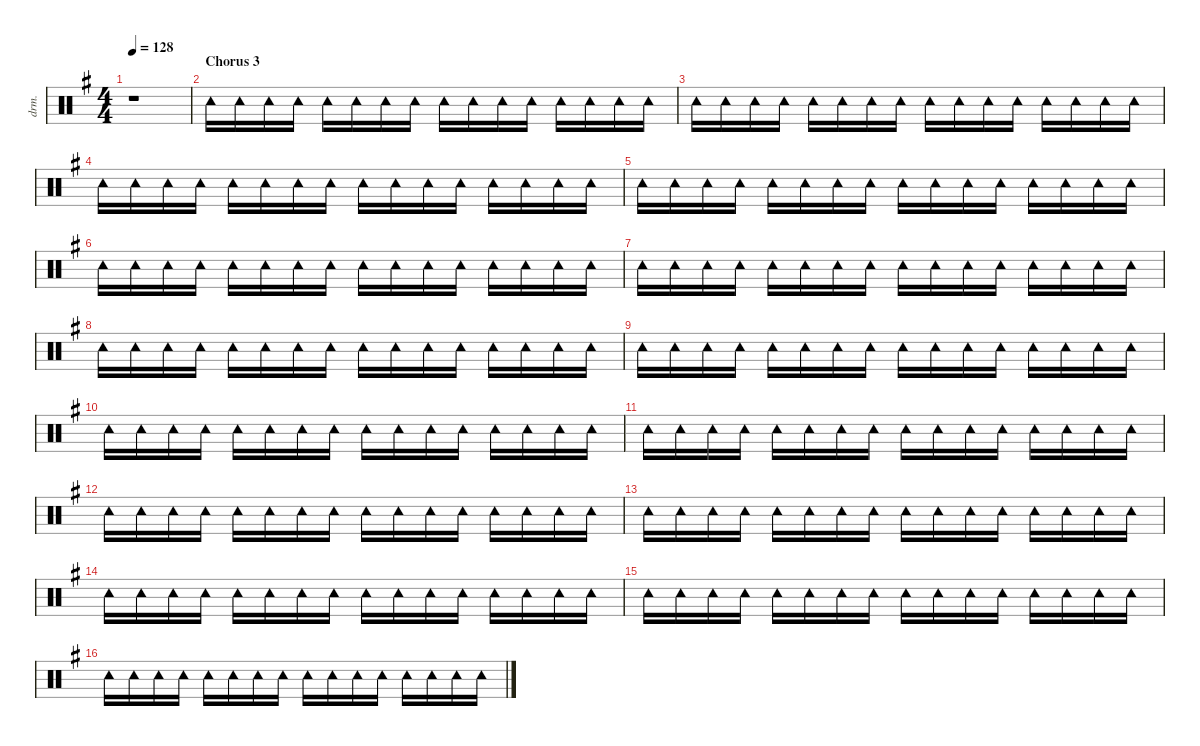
\defaultSystemsLayout 4
\hideDynamics
\bracketExtendMode nobrackets
\otherSystemsTrackNameOrientation horizontal
\track ("Percussion" "drm.") {defaultSystemsLayout 8 instrument percussion}
\staff {score}
\articulation defaults
\ts (4 4)
\tempo 128
\clef neutral
\ks eminor
r.1{dy fff beam Down} |
\section ("" "Chorus 3")
"Tambourine (hit)"{acc forcenatural}.16{dy f beam Down} "Tambourine (hit)"{acc forcenatural}.16{beam Down} "Tambourine (hit)"{acc forcenatural}.16{beam Down} "Tambourine (hit)"{acc forcenatural}.16{beam Down} "Tambourine (hit)"{acc forcenatural}.16{dy fff beam Down} "Tambourine (hit)"{acc forcenatural}.16{dy f beam Down} "Tambourine (hit)"{acc forcenatural}.16{beam Down} "Tambourine (hit)"{acc forcenatural}.16{beam Down} "Tambourine (hit)"{acc forcenatural}.16{beam Down} "Tambourine (hit)"{acc forcenatural}.16{beam Down} "Tambourine (hit)"{acc forcenatural}.16{beam Down} "Tambourine (hit)"{acc forcenatural}.16{beam Down} "Tambourine (hit)"{acc forcenatural}.16{dy fff beam Down} "Tambourine (hit)"{acc forcenatural}.16{dy f beam Down} "Tambourine (hit)"{acc forcenatural}.16{beam Down} "Tambourine (hit)"{acc forcenatural}.16{beam Down} |
"Tambourine (hit)"{acc forcenatural}.16{beam Down} "Tambourine (hit)"{acc forcenatural}.16{beam Down} "Tambourine (hit)"{acc forcenatural}.16{beam Down} "Tambourine (hit)"{acc forcenatural}.16{beam Down} "Tambourine (hit)"{acc forcenatural}.16{dy fff beam Down} "Tambourine (hit)"{acc forcenatural}.16{dy f beam Down} "Tambourine (hit)"{acc forcenatural}.16{beam Down} "Tambourine (hit)"{acc forcenatural}.16{beam Down} "Tambourine (hit)"{acc forcenatural}.16{beam Down} "Tambourine (hit)"{acc forcenatural}.16{beam Down} "Tambourine (hit)"{acc forcenatural}.16{beam Down} "Tambourine (hit)"{acc forcenatural}.16{beam Down} "Tambourine (hit)"{acc forcenatural}.16{dy fff beam Down} "Tambourine (hit)"{acc forcenatural}.16{dy f beam Down} "Tambourine (hit)"{acc forcenatural}.16{beam Down} "Tambourine (hit)"{acc forcenatural}.16{beam Down} |
"Tambourine (hit)"{acc forcenatural}.16{beam Down} "Tambourine (hit)"{acc forcenatural}.16{beam Down} "Tambourine (hit)"{acc forcenatural}.16{beam Down} "Tambourine (hit)"{acc forcenatural}.16{beam Down} "Tambourine (hit)"{acc forcenatural}.16{dy fff beam Down} "Tambourine (hit)"{acc forcenatural}.16{dy f beam Down} "Tambourine (hit)"{acc forcenatural}.16{beam Down} "Tambourine (hit)"{acc forcenatural}.16{beam Down} "Tambourine (hit)"{acc forcenatural}.16{beam Down} "Tambourine (hit)"{acc forcenatural}.16{beam Down} "Tambourine (hit)"{acc forcenatural}.16{beam Down} "Tambourine (hit)"{acc forcenatural}.16{beam Down} "Tambourine (hit)"{acc forcenatural}.16{dy fff beam Down} "Tambourine (hit)"{acc forcenatural}.16{dy f beam Down} "Tambourine (hit)"{acc forcenatural}.16{beam Down} "Tambourine (hit)"{acc forcenatural}.16{beam Down} |
"Tambourine (hit)"{acc forcenatural}.16{beam Down} "Tambourine (hit)"{acc forcenatural}.16{beam Down} "Tambourine (hit)"{acc forcenatural}.16{beam Down} "Tambourine (hit)"{acc forcenatural}.16{beam Down} "Tambourine (hit)"{acc forcenatural}.16{dy fff beam Down} "Tambourine (hit)"{acc forcenatural}.16{dy f beam Down} "Tambourine (hit)"{acc forcenatural}.16{beam Down} "Tambourine (hit)"{acc forcenatural}.16{beam Down} "Tambourine (hit)"{acc forcenatural}.16{beam Down} "Tambourine (hit)"{acc forcenatural}.16{beam Down} "Tambourine (hit)"{acc forcenatural}.16{beam Down} "Tambourine (hit)"{acc forcenatural}.16{beam Down} "Tambourine (hit)"{acc forcenatural}.16{dy fff beam Down} "Tambourine (hit)"{acc forcenatural}.16{dy f beam Down} "Tambourine (hit)"{acc forcenatural}.16{beam Down} "Tambourine (hit)"{acc forcenatural}.16{beam Down} |
"Tambourine (hit)"{acc forcenatural}.16{beam Down} "Tambourine (hit)"{acc forcenatural}.16{beam Down} "Tambourine (hit)"{acc forcenatural}.16{beam Down} "Tambourine (hit)"{acc forcenatural}.16{beam Down} "Tambourine (hit)"{acc forcenatural}.16{dy fff beam Down} "Tambourine (hit)"{acc forcenatural}.16{dy f beam Down} "Tambourine (hit)"{acc forcenatural}.16{beam Down} "Tambourine (hit)"{acc forcenatural}.16{beam Down} "Tambourine (hit)"{acc forcenatural}.16{beam Down} "Tambourine (hit)"{acc forcenatural}.16{beam Down} "Tambourine (hit)"{acc forcenatural}.16{beam Down} "Tambourine (hit)"{acc forcenatural}.16{beam Down} "Tambourine (hit)"{acc forcenatural}.16{dy fff beam Down} "Tambourine (hit)"{acc forcenatural}.16{dy f beam Down} "Tambourine (hit)"{acc forcenatural}.16{beam Down} "Tambourine (hit)"{acc forcenatural}.16{beam Down} |
"Tambourine (hit)"{acc forcenatural}.16{beam Down} "Tambourine (hit)"{acc forcenatural}.16{beam Down} "Tambourine (hit)"{acc forcenatural}.16{beam Down} "Tambourine (hit)"{acc forcenatural}.16{beam Down} "Tambourine (hit)"{acc forcenatural}.16{dy fff beam Down} "Tambourine (hit)"{acc forcenatural}.16{dy f beam Down} "Tambourine (hit)"{acc forcenatural}.16{beam Down} "Tambourine (hit)"{acc forcenatural}.16{beam Down} "Tambourine (hit)"{acc forcenatural}.16{beam Down} "Tambourine (hit)"{acc forcenatural}.16{beam Down} "Tambourine (hit)"{acc forcenatural}.16{beam Down} "Tambourine (hit)"{acc forcenatural}.16{beam Down} "Tambourine (hit)"{acc forcenatural}.16{dy fff beam Down} "Tambourine (hit)"{acc forcenatural}.16{dy f beam Down} "Tambourine (hit)"{acc forcenatural}.16{beam Down} "Tambourine (hit)"{acc forcenatural}.16{beam Down} |
"Tambourine (hit)"{acc forcenatural}.16{beam Down} "Tambourine (hit)"{acc forcenatural}.16{beam Down} "Tambourine (hit)"{acc forcenatural}.16{beam Down} "Tambourine (hit)"{acc forcenatural}.16{beam Down} "Tambourine (hit)"{acc forcenatural}.16{dy fff beam Down} "Tambourine (hit)"{acc forcenatural}.16{dy f beam Down} "Tambourine (hit)"{acc forcenatural}.16{beam Down} "Tambourine (hit)"{acc forcenatural}.16{beam Down} "Tambourine (hit)"{acc forcenatural}.16{beam Down} "Tambourine (hit)"{acc forcenatural}.16{beam Down} "Tambourine (hit)"{acc forcenatural}.16{beam Down} "Tambourine (hit)"{acc forcenatural}.16{beam Down} "Tambourine (hit)"{acc forcenatural}.16{dy fff beam Down} "Tambourine (hit)"{acc forcenatural}.16{dy f beam Down} "Tambourine (hit)"{acc forcenatural}.16{beam Down} "Tambourine (hit)"{acc forcenatural}.16{beam Down} |
"Tambourine (hit)"{acc forcenatural}.16{beam Down} "Tambourine (hit)"{acc forcenatural}.16{beam Down} "Tambourine (hit)"{acc forcenatural}.16{beam Down} "Tambourine (hit)"{acc forcenatural}.16{beam Down} "Tambourine (hit)"{acc forcenatural}.16{dy fff beam Down} "Tambourine (hit)"{acc forcenatural}.16{dy f beam Down} "Tambourine (hit)"{acc forcenatural}.16{beam Down} "Tambourine (hit)"{acc forcenatural}.16{beam Down} "Tambourine (hit)"{acc forcenatural}.16{beam Down} "Tambourine (hit)"{acc forcenatural}.16{beam Down} "Tambourine (hit)"{acc forcenatural}.16{beam Down} "Tambourine (hit)"{acc forcenatural}.16{beam Down} "Tambourine (hit)"{acc forcenatural}.16{dy fff beam Down} "Tambourine (hit)"{acc forcenatural}.16{dy f beam Down} "Tambourine (hit)"{acc forcenatural}.16{beam Down} "Tambourine (hit)"{acc forcenatural}.16{beam Down} |
"Tambourine (hit)"{acc forcenatural}.16{beam Down} "Tambourine (hit)"{acc forcenatural}.16{beam Down} "Tambourine (hit)"{acc forcenatural}.16{beam Down} "Tambourine (hit)"{acc forcenatural}.16{beam Down} "Tambourine (hit)"{acc forcenatural}.16{dy fff beam Down} "Tambourine (hit)"{acc forcenatural}.16{dy f beam Down} "Tambourine (hit)"{acc forcenatural}.16{beam Down} "Tambourine (hit)"{acc forcenatural}.16{beam Down} "Tambourine (hit)"{acc forcenatural}.16{beam Down} "Tambourine (hit)"{acc forcenatural}.16{beam Down} "Tambourine (hit)"{acc forcenatural}.16{beam Down} "Tambourine (hit)"{acc forcenatural}.16{beam Down} "Tambourine (hit)"{acc forcenatural}.16{dy fff beam Down} "Tambourine (hit)"{acc forcenatural}.16{dy f beam Down} "Tambourine (hit)"{acc forcenatural}.16{beam Down} "Tambourine (hit)"{acc forcenatural}.16{beam Down} |
"Tambourine (hit)"{acc forcenatural}.16{beam Down} "Tambourine (hit)"{acc forcenatural}.16{beam Down} "Tambourine (hit)"{acc forcenatural}.16{beam Down} "Tambourine (hit)"{acc forcenatural}.16{beam Down} "Tambourine (hit)"{acc forcenatural}.16{dy fff beam Down} "Tambourine (hit)"{acc forcenatural}.16{dy f beam Down} "Tambourine (hit)"{acc forcenatural}.16{beam Down} "Tambourine (hit)"{acc forcenatural}.16{beam Down} "Tambourine (hit)"{acc forcenatural}.16{beam Down} "Tambourine (hit)"{acc forcenatural}.16{beam Down} "Tambourine (hit)"{acc forcenatural}.16{beam Down} "Tambourine (hit)"{acc forcenatural}.16{beam Down} "Tambourine (hit)"{acc forcenatural}.16{dy fff beam Down} "Tambourine (hit)"{acc forcenatural}.16{dy f beam Down} "Tambourine (hit)"{acc forcenatural}.16{beam Down} "Tambourine (hit)"{acc forcenatural}.16{beam Down} |
"Tambourine (hit)"{acc forcenatural}.16{beam Down} "Tambourine (hit)"{acc forcenatural}.16{beam Down} "Tambourine (hit)"{acc forcenatural}.16{beam Down} "Tambourine (hit)"{acc forcenatural}.16{beam Down} "Tambourine (hit)"{acc forcenatural}.16{dy fff beam Down} "Tambourine (hit)"{acc forcenatural}.16{dy f beam Down} "Tambourine (hit)"{acc forcenatural}.16{beam Down} "Tambourine (hit)"{acc forcenatural}.16{beam Down} "Tambourine (hit)"{acc forcenatural}.16{beam Down} "Tambourine (hit)"{acc forcenatural}.16{beam Down} "Tambourine (hit)"{acc forcenatural}.16{beam Down} "Tambourine (hit)"{acc forcenatural}.16{beam Down} "Tambourine (hit)"{acc forcenatural}.16{dy fff beam Down} "Tambourine (hit)"{acc forcenatural}.16{dy f beam Down} "Tambourine (hit)"{acc forcenatural}.16{beam Down} "Tambourine (hit)"{acc forcenatural}.16{beam Down} |
"Tambourine (hit)"{acc forcenatural}.16{beam Down} "Tambourine (hit)"{acc forcenatural}.16{beam Down} "Tambourine (hit)"{acc forcenatural}.16{beam Down} "Tambourine (hit)"{acc forcenatural}.16{beam Down} "Tambourine (hit)"{acc forcenatural}.16{dy fff beam Down} "Tambourine (hit)"{acc forcenatural}.16{dy f beam Down} "Tambourine (hit)"{acc forcenatural}.16{beam Down} "Tambourine (hit)"{acc forcenatural}.16{beam Down} "Tambourine (hit)"{acc forcenatural}.16{beam Down} "Tambourine (hit)"{acc forcenatural}.16{beam Down} "Tambourine (hit)"{acc forcenatural}.16{beam Down} "Tambourine (hit)"{acc forcenatural}.16{beam Down} "Tambourine (hit)"{acc forcenatural}.16{dy fff beam Down} "Tambourine (hit)"{acc forcenatural}.16{dy f beam Down} "Tambourine (hit)"{acc forcenatural}.16{beam Down} "Tambourine (hit)"{acc forcenatural}.16{beam Down} |
"Tambourine (hit)"{acc forcenatural}.16{beam Down} "Tambourine (hit)"{acc forcenatural}.16{beam Down} "Tambourine (hit)"{acc forcenatural}.16{beam Down} "Tambourine (hit)"{acc forcenatural}.16{beam Down} "Tambourine (hit)"{acc forcenatural}.16{dy fff beam Down} "Tambourine (hit)"{acc forcenatural}.16{dy f beam Down} "Tambourine (hit)"{acc forcenatural}.16{beam Down} "Tambourine (hit)"{acc forcenatural}.16{beam Down} "Tambourine (hit)"{acc forcenatural}.16{beam Down} "Tambourine (hit)"{acc forcenatural}.16{beam Down} "Tambourine (hit)"{acc forcenatural}.16{beam Down} "Tambourine (hit)"{acc forcenatural}.16{beam Down} "Tambourine (hit)"{acc forcenatural}.16{dy fff beam Down} "Tambourine (hit)"{acc forcenatural}.16{dy f beam Down} "Tambourine (hit)"{acc forcenatural}.16{beam Down} "Tambourine (hit)"{acc forcenatural}.16{beam Down} |
"Tambourine (hit)"{acc forcenatural}.16{beam Down} "Tambourine (hit)"{acc forcenatural}.16{beam Down} "Tambourine (hit)"{acc forcenatural}.16{beam Down} "Tambourine (hit)"{acc forcenatural}.16{beam Down} "Tambourine (hit)"{acc forcenatural}.16{dy fff beam Down} "Tambourine (hit)"{acc forcenatural}.16{dy f beam Down} "Tambourine (hit)"{acc forcenatural}.16{beam Down} "Tambourine (hit)"{acc forcenatural}.16{beam Down} "Tambourine (hit)"{acc forcenatural}.16{beam Down} "Tambourine (hit)"{acc forcenatural}.16{beam Down} "Tambourine (hit)"{acc forcenatural}.16{beam Down} "Tambourine (hit)"{acc forcenatural}.16{beam Down} "Tambourine (hit)"{acc forcenatural}.16{dy fff beam Down} "Tambourine (hit)"{acc forcenatural}.16{dy f beam Down} "Tambourine (hit)"{acc forcenatural}.16{beam Down} "Tambourine (hit)"{acc forcenatural}.16{beam Down} |
"Tambourine (hit)"{acc forcenatural}.16{beam Down} "Tambourine (hit)"{acc forcenatural}.16{beam Down} "Tambourine (hit)"{acc forcenatural}.16{beam Down} "Tambourine (hit)"{acc forcenatural}.16{beam Down} "Tambourine (hit)"{acc forcenatural}.16{dy fff beam Down} "Tambourine (hit)"{acc forcenatural}.16{dy f beam Down} "Tambourine (hit)"{acc forcenatural}.16{beam Down} "Tambourine (hit)"{acc forcenatural}.16{beam Down} "Tambourine (hit)"{acc forcenatural}.16{beam Down} "Tambourine (hit)"{acc forcenatural}.16{beam Down} "Tambourine (hit)"{acc forcenatural}.16{beam Down} "Tambourine (hit)"{acc forcenatural}.16{beam Down} "Tambourine (hit)"{acc forcenatural}.16{dy fff beam Down} "Tambourine (hit)"{acc forcenatural}.16{dy f beam Down} "Tambourine (hit)"{acc forcenatural}.16{beam Down} "Tambourine (hit)"{acc forcenatural}.16{beam Down}
